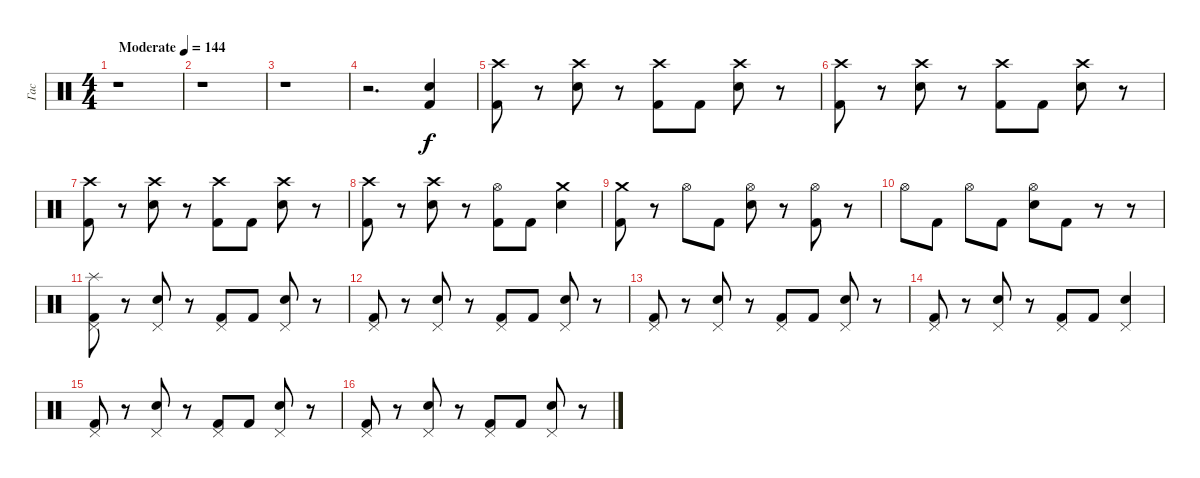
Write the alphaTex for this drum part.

\track ("Гас" "Гас") {instrument percussion}
\staff {score}
\articulation defaults
\ts (4 4)
\tempo (144 "Moderate")
\clef neutral
\ks c
r.1{dy f} |
r.1 |
r.1 |
r.2{d} ("Snare (hit) 2" "Kick (hit) 2").4 |
("Crash high (hit)" "Kick (hit) 2").8 r.8 ("Crash high (hit)" "Electric Snare (hit)").8 r.8 ("Crash high (hit)" "Kick (hit) 2").8 "Kick (hit) 2".8 ("Crash high (hit)" "Electric Snare (hit)").8 r.8 |
("Crash high (hit)" "Kick (hit) 2").8 r.8 ("Crash high (hit)" "Electric Snare (hit)").8 r.8 ("Crash high (hit)" "Kick (hit) 2").8 "Kick (hit) 2".8 ("Crash high (hit)" "Electric Snare (hit)").8 r.8 |
("Crash high (hit)" "Kick (hit) 2").8 r.8 ("Crash high (hit)" "Electric Snare (hit)").8 r.8 ("Crash high (hit)" "Kick (hit) 2").8 "Kick (hit) 2".8 ("Crash high (hit)" "Electric Snare (hit)").8 r.8 |
("Crash high (hit)" "Kick (hit) 2").8 r.8 ("Crash high (hit)" "Electric Snare (hit)").8 r.8 ("Hi-Hat (open)" "Kick (hit) 2").8 "Kick (hit) 2".8 ("Crash medium (hit)" "Electric Snare (hit)").4 |
("Crash medium (hit)" "Kick (hit) 2").8 r.8 "Hi-Hat (open)".8 "Kick (hit) 2".8 ("Hi-Hat (open)" "Electric Snare (hit)").8 r.8 ("Hi-Hat (open)" "Kick (hit) 2").8 r.8 |
"Hi-Hat (open)".8 "Kick (hit) 2".8 "Hi-Hat (open)".8 "Kick (hit) 2".8 ("Hi-Hat (open)" "Electric Snare (hit)").8 "Kick (hit) 2".8 r.8 r.8 |
("Pedal Hi-Hat (hit)" "Splash (hit)" "Kick (hit) 2").8 r.8 ("Pedal Hi-Hat (hit)" "Electric Snare (hit)").8 r.8 ("Pedal Hi-Hat (hit)" "Kick (hit) 2").8 "Kick (hit) 2".8 ("Pedal Hi-Hat (hit)" "Electric Snare (hit)").8 r.8 |
("Pedal Hi-Hat (hit)" "Kick (hit) 2").8 r.8 ("Pedal Hi-Hat (hit)" "Electric Snare (hit)").8 r.8 ("Pedal Hi-Hat (hit)" "Kick (hit) 2").8 "Kick (hit) 2".8 ("Pedal Hi-Hat (hit)" "Electric Snare (hit)").8 r.8 |
("Pedal Hi-Hat (hit)" "Kick (hit) 2").8 r.8 ("Pedal Hi-Hat (hit)" "Electric Snare (hit)").8 r.8 ("Pedal Hi-Hat (hit)" "Kick (hit) 2").8 "Kick (hit) 2".8 ("Pedal Hi-Hat (hit)" "Electric Snare (hit)").8 r.8 |
("Pedal Hi-Hat (hit)" "Kick (hit) 2").8 r.8 ("Pedal Hi-Hat (hit)" "Electric Snare (hit)").8 r.8 ("Pedal Hi-Hat (hit)" "Kick (hit) 2").8 "Kick (hit) 2".8 ("Pedal Hi-Hat (hit)" "Electric Snare (hit)").4 |
("Pedal Hi-Hat (hit)" "Kick (hit) 2").8 r.8 ("Pedal Hi-Hat (hit)" "Electric Snare (hit)").8 r.8 ("Pedal Hi-Hat (hit)" "Kick (hit) 2").8 "Kick (hit) 2".8 ("Pedal Hi-Hat (hit)" "Electric Snare (hit)").8 r.8 |
("Pedal Hi-Hat (hit)" "Kick (hit) 2").8 r.8 ("Pedal Hi-Hat (hit)" "Electric Snare (hit)").8 r.8 ("Pedal Hi-Hat (hit)" "Kick (hit) 2").8 "Kick (hit) 2".8 ("Pedal Hi-Hat (hit)" "Electric Snare (hit)").8 r.8
